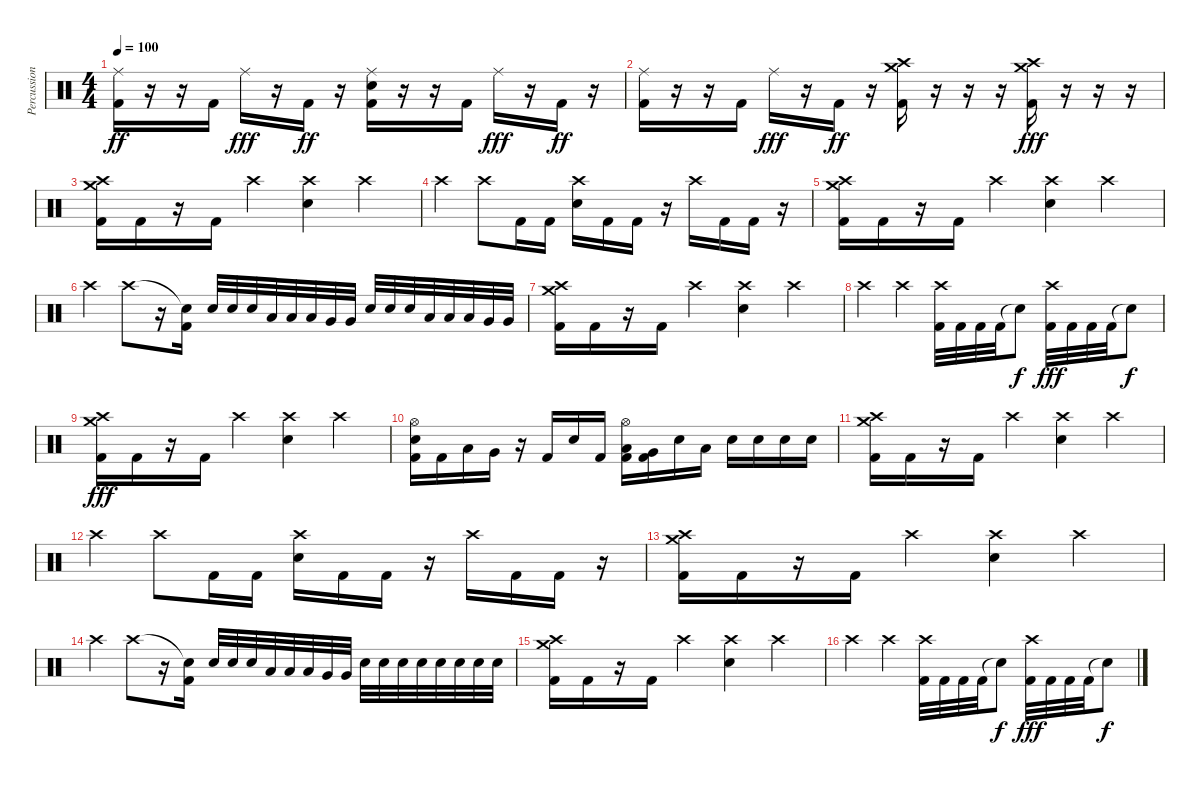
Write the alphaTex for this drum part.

\track ("Percussion" "Percussion") {instrument percussion}
\staff {score}
\articulation defaults
\ts (4 4)
\tempo 100
\clef neutral
\ks c
("Ride (middle)" "Kick (hit) 2").16{dy ff} r.16 r.16 "Kick (hit) 2".16 "Ride (middle)".16{dy fff} r.16 "Kick (hit) 2".16{dy ff} r.16 ("Ride (middle)" "Electric Snare (hit)" "Kick (hit) 2").16 r.16 r.16 "Kick (hit) 2".16 "Ride (middle)".16{dy fff} r.16 "Kick (hit) 2".16{dy ff} r.16 |
("Ride (middle)" "Kick (hit) 2").16 r.16 r.16 "Kick (hit) 2".16 "Ride (middle)".16{dy fff} r.16 "Kick (hit) 2".16{dy ff} r.16 ("Crash high (hit)" "Crash medium (hit)" "Kick (hit) 2").16 r.16 r.16 r.16 ("Crash high (hit)" "Crash medium (hit)" "Kick (hit) 2").16{dy fff} r.16 r.16 r.16 |
("Crash high (hit)" "Crash medium (hit)" "Kick (hit) 2").16 "Kick (hit) 2".16 r.16 "Kick (hit) 2".16 "Crash high (hit)".4 ("Crash high (hit)" "Electric Snare (hit)").4 "Crash high (hit)".4 |
"Crash high (hit)".4 "Crash high (hit)".8 "Kick (hit) 2".16 "Kick (hit) 2".16 ("Crash high (hit)" "Electric Snare (hit)").16 "Kick (hit) 2".16 "Kick (hit) 2".16 r.16 "Crash high (hit)".16 "Kick (hit) 2".16 "Kick (hit) 2".16 r.16 |
("Crash high (hit)" "Crash medium (hit)" "Kick (hit) 2").16 "Kick (hit) 2".16 r.16 "Kick (hit) 2".16 "Crash high (hit)".4 ("Crash high (hit)" "Electric Snare (hit)").4 "Crash high (hit)".4 |
"Crash high (hit)".4 "Crash high (hit)".8 r.16 ("Snare (hit)"{t} "Kick (hit) 2").16 "Electric Snare (hit)".32 "Electric Snare (hit)".32 "Electric Snare (hit)".32 "Low Tom (hit)".32 "Low Tom (hit)".32 "Low Tom (hit)".32 "Very Low Tom (hit)".32 "Very Low Tom (hit)".32 "Electric Snare (hit)".32 "Electric Snare (hit)".32 "Electric Snare (hit)".32 "Low Tom (hit)".32 "Low Tom (hit)".32 "Low Tom (hit)".32 "Very Low Tom (hit)".32 "Very Low Tom (hit)".32 |
("Crash high (hit)" "Crash medium (hit)" "Kick (hit) 2").16 "Kick (hit) 2".16 r.16 "Kick (hit) 2".16 "Crash high (hit)".4 ("Crash high (hit)" "Electric Snare (hit)").4 "Crash high (hit)".4 |
"Crash high (hit)".4 "Crash high (hit)".4 ("Crash high (hit)" "Kick (hit) 2").32 "Kick (hit) 2".32 "Kick (hit) 2".32 "Kick (hit) 2".32 "Snare (hit)"{t}.8{dy f} ("Crash high (hit)" "Kick (hit) 2").32{dy fff} "Kick (hit) 2".32 "Kick (hit) 2".32 "Kick (hit) 2".32 "Snare (hit)"{t}.8{dy f} |
("Crash high (hit)" "Crash medium (hit)" "Kick (hit) 2").16{dy fff} "Kick (hit) 2".16 r.16 "Kick (hit) 2".16 "Crash high (hit)".4 ("Crash high (hit)" "Electric Snare (hit)").4 "Crash high (hit)".4 |
("Hi-Hat (open)" "Electric Snare (hit)" "Kick (hit) 2").16 "Kick (hit) 2".16 "Low Tom (hit)".16 "Very Low Tom (hit)".16 r.16 "Kick (hit) 2".16 "Electric Snare (hit)".16 "Kick (hit) 2".16 ("Hi-Hat (open)" "Low Tom (hit)" "Kick (hit) 2").16 ("Very Low Tom (hit)" "Kick (hit) 2").16 "Electric Snare (hit)".16 "Low Tom (hit)".16 "Electric Snare (hit)".16 "Electric Snare (hit)".16 "Electric Snare (hit)".16 "Electric Snare (hit)".16 |
("Crash high (hit)" "Crash medium (hit)" "Kick (hit) 2").16 "Kick (hit) 2".16 r.16 "Kick (hit) 2".16 "Crash high (hit)".4 ("Crash high (hit)" "Electric Snare (hit)").4 "Crash high (hit)".4 |
"Crash high (hit)".4 "Crash high (hit)".8 "Kick (hit) 2".16 "Kick (hit) 2".16 ("Crash high (hit)" "Electric Snare (hit)").16 "Kick (hit) 2".16 "Kick (hit) 2".16 r.16 "Crash high (hit)".16 "Kick (hit) 2".16 "Kick (hit) 2".16 r.16 |
("Crash high (hit)" "Crash medium (hit)" "Kick (hit) 2").16 "Kick (hit) 2".16 r.16 "Kick (hit) 2".16 "Crash high (hit)".4 ("Crash high (hit)" "Electric Snare (hit)").4 "Crash high (hit)".4 |
"Crash high (hit)".4 "Crash high (hit)".8 r.16 ("Snare (hit)"{t} "Kick (hit) 2").16 "Electric Snare (hit)".32 "Electric Snare (hit)".32 "Electric Snare (hit)".32 "Low Tom (hit)".32 "Low Tom (hit)".32 "Low Tom (hit)".32 "Very Low Tom (hit)".32 "Very Low Tom (hit)".32 "Electric Snare (hit)".32 "Electric Snare (hit)".32 "Electric Snare (hit)".32 "Electric Snare (hit)".32 "Electric Snare (hit)".32 "Electric Snare (hit)".32 "Electric Snare (hit)".32 "Electric Snare (hit)".32 |
("Crash high (hit)" "Crash medium (hit)" "Kick (hit) 2").16 "Kick (hit) 2".16 r.16 "Kick (hit) 2".16 "Crash high (hit)".4 ("Crash high (hit)" "Electric Snare (hit)").4 "Crash high (hit)".4 |
"Crash high (hit)".4 "Crash high (hit)".4 ("Crash high (hit)" "Kick (hit) 2").32 "Kick (hit) 2".32 "Kick (hit) 2".32 "Kick (hit) 2".32 "Snare (hit)"{t}.8{dy f} ("Crash high (hit)" "Kick (hit) 2").32{dy fff} "Kick (hit) 2".32 "Kick (hit) 2".32 "Kick (hit) 2".32 "Snare (hit)"{t}.8{dy f}
